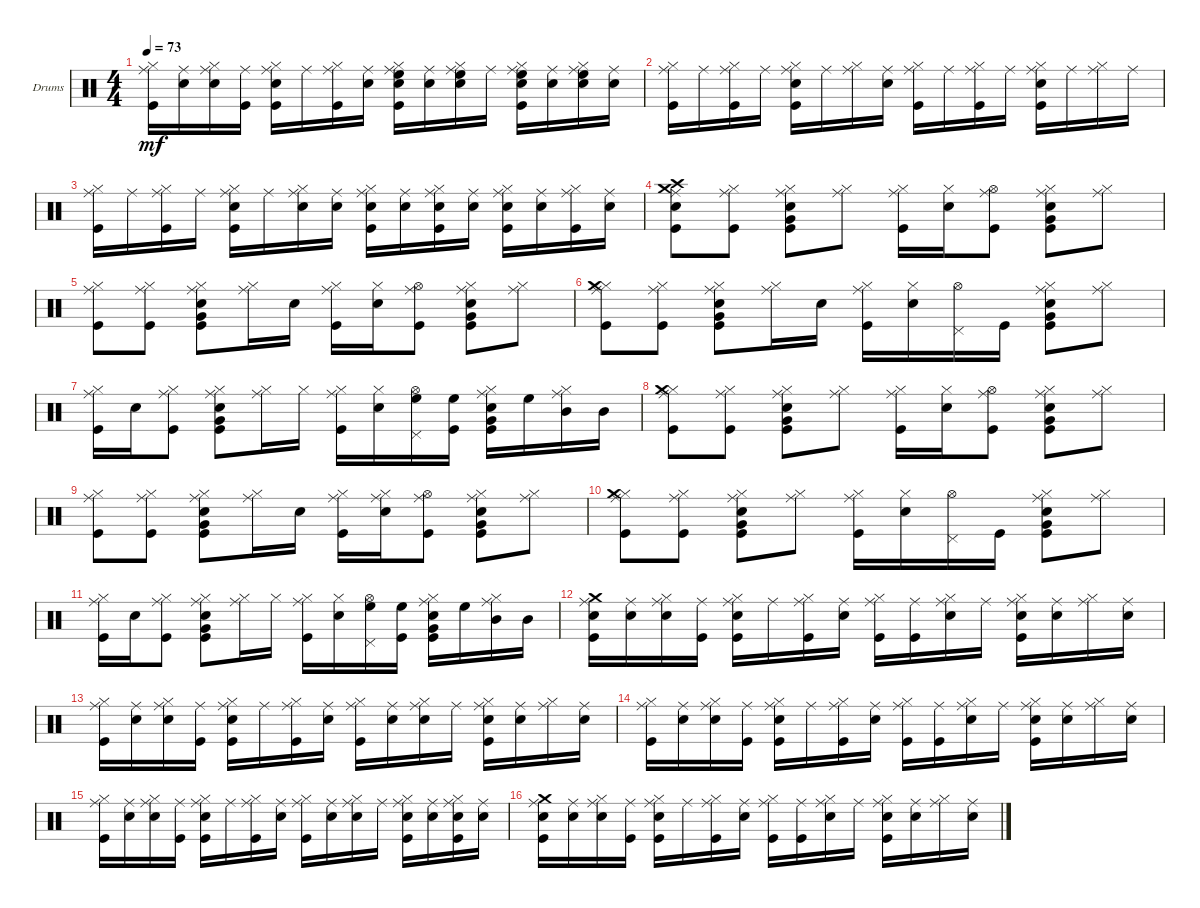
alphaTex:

\bracketExtendMode groupsimilarinstruments
\firstSystemTrackNameOrientation horizontal
\otherSystemsTrackNameOrientation horizontal
\track ("Drums" "Drums") {instrument percussion}
\staff {score}
\articulation defaults
\ts (4 4)
\tempo 73
\clef neutral
\ks c
("Kick (hit)" "Hi-Hat (closed)" "Ride (middle)").16{dy mf} ("Snare (hit) 2" "Ride (middle)").16 ("Hi-Hat (closed)" "Snare (hit) 2" "Ride (middle)").16 ("Kick (hit)" "Ride (middle)").16 ("Kick (hit)" "Snare (hit) 2" "Hi-Hat (closed)" "Ride (middle)").16 "Ride (middle)".16 ("Hi-Hat (closed)" "Kick (hit)" "Ride (middle)").16 ("Snare (hit) 2" "Ride (middle)").16 ("Snare (hit) 2" "Hi-Hat (closed)" "High Floor Tom (hit)" "Kick (hit)" "Ride (middle)").16 ("Snare (hit) 2" "Ride (middle)").16 ("Snare (hit) 2" "Hi-Hat (closed)" "High Floor Tom (hit)" "Ride (middle)").16 "Ride (middle)".16 ("Kick (hit)" "Snare (hit) 2" "Hi-Hat (closed)" "High Floor Tom (hit)" "Ride (middle)").16 ("Snare (hit) 2" "Ride (middle)").16 ("Snare (hit) 2" "Hi-Hat (closed)" "High Floor Tom (hit)" "Ride (middle)").16 ("Snare (hit) 2" "Ride (middle)").16 |
("Kick (hit)" "Hi-Hat (closed)" "Ride (middle)").16 "Ride (middle)".16 ("Hi-Hat (closed)" "Kick (hit)" "Ride (middle)").16 "Ride (middle)".16 ("Kick (hit)" "Snare (hit) 2" "Hi-Hat (closed)" "Ride (middle)").16 "Ride (middle)".16 ("Hi-Hat (closed)" "Ride (middle)").16 ("Snare (hit) 2" "Ride (middle)").16 ("Kick (hit)" "Hi-Hat (closed)" "Ride (middle)").16 "Ride (middle)".16 ("Hi-Hat (closed)" "Kick (hit)" "Ride (middle)").16 "Ride (middle)".16 ("Kick (hit)" "Snare (hit) 2" "Hi-Hat (closed)" "Ride (middle)").16 "Ride (middle)".16 ("Hi-Hat (closed)" "Ride (middle)").16 "Ride (middle)".16 |
("Kick (hit)" "Hi-Hat (closed)" "Ride (middle)").16 "Ride (middle)".16 ("Hi-Hat (closed)" "Kick (hit)" "Ride (middle)").16 "Ride (middle)".16 ("Kick (hit)" "Snare (hit) 2" "Hi-Hat (closed)" "Ride (middle)").16 "Ride (middle)".16 ("Snare (hit) 2" "Hi-Hat (closed)" "Ride (middle)").16 ("Snare (hit) 2" "Ride (middle)").16 ("Kick (hit)" "Snare (hit) 2" "Hi-Hat (closed)" "Ride (middle)").16 ("Snare (hit) 2" "Ride (middle)").16 ("Kick (hit)" "Snare (hit) 2" "Hi-Hat (closed)" "Ride (middle)").16 ("Snare (hit) 2" "Ride (middle)").16 ("Kick (hit)" "Snare (hit) 2" "Hi-Hat (closed)" "Ride (middle)").16 ("Snare (hit) 2" "Ride (middle)").16 ("Kick (hit)" "Hi-Hat (closed)" "Ride (middle)").16 ("Snare (hit) 2" "Ride (middle)").16 |
("Kick (hit)" "Snare (hit) 2" "Crash medium (hit)" "Crash high (hit)" "Ride (middle)").8 ("Hi-Hat (closed)" "Kick (hit)" "Ride (middle)").8 ("Kick (hit)" "Snare (hit) 2" "Hi-Hat (closed)" "Very Low Tom (hit)" "Ride (middle)").8 ("Hi-Hat (closed)" "Ride (middle)").8 ("Kick (hit)" "Hi-Hat (closed)" "Ride (middle)").16 ("Hi-Hat (closed)" "Snare (hit) 2").16 ("Hi-Hat (open)" "Kick (hit)" "Ride (middle)").8 ("Kick (hit)" "Snare (hit) 2" "Hi-Hat (closed)" "Very Low Tom (hit)" "Ride (middle)").8 ("Hi-Hat (closed)" "Ride (middle)").8 |
("Kick (hit)" "Hi-Hat (closed)" "Ride (middle)").8 ("Hi-Hat (closed)" "Kick (hit)" "Ride (middle)").8 ("Kick (hit)" "Snare (hit) 2" "Hi-Hat (closed)" "Very Low Tom (hit)" "Ride (middle)").8 ("Hi-Hat (closed)" "Ride (middle)").16 "Snare (hit) 2".16 ("Kick (hit)" "Hi-Hat (closed)" "Ride (middle)").16 ("Snare (hit) 2" "Hi-Hat (closed)").16 ("Hi-Hat (open)" "Kick (hit)" "Ride (middle)").8 ("Kick (hit)" "Snare (hit) 2" "Hi-Hat (closed)" "Very Low Tom (hit)" "Ride (middle)").8 ("Hi-Hat (closed)" "Ride (middle)").8 |
("Kick (hit)" "Hi-Hat (closed)" "Ride (middle)" "Crash medium (hit)").8 ("Hi-Hat (closed)" "Kick (hit)" "Ride (middle)").8 ("Kick (hit)" "Snare (hit) 2" "Hi-Hat (closed)" "Very Low Tom (hit)" "Ride (middle)").8 ("Hi-Hat (closed)" "Ride (middle)").16 "Snare (hit) 2".16 ("Kick (hit)" "Hi-Hat (closed)" "Ride (middle)").16 ("Hi-Hat (closed)" "Snare (hit) 2").16 ("Hi-Hat (open)" "Pedal Hi-Hat (hit)").16 "Kick (hit)".16 ("Kick (hit)" "Snare (hit) 2" "Hi-Hat (closed)" "Very Low Tom (hit)" "Ride (middle)").8 ("Hi-Hat (closed)" "Ride (middle)").8 |
("Kick (hit)" "Hi-Hat (closed)" "Ride (middle)").16 "Snare (hit) 2".16 ("Hi-Hat (closed)" "Kick (hit)" "Ride (middle)").8 ("Kick (hit)" "Snare (hit) 2" "Hi-Hat (closed)" "Very Low Tom (hit)" "Ride (middle)").8 ("Hi-Hat (closed)" "Ride (middle)").16 "Hi-Hat (closed)".16 ("Kick (hit)" "Hi-Hat (closed)" "Ride (middle)").16 ("Hi-Hat (closed)" "Snare (hit) 2").16 ("Hi-Hat (open)" "High Floor Tom (hit)" "Pedal Hi-Hat (hit)").16 ("High Floor Tom (hit)" "Kick (hit)").16 ("Kick (hit)" "Hi-Hat (closed)" "Very Low Tom (hit)" "Snare (hit) 2" "Ride (middle)").16 "High Floor Tom (hit)".16 ("Hi-Hat (closed)" "Mid Tom (hit)" "Ride (middle)").16 "Mid Tom (hit)".16 |
("Kick (hit)" "Hi-Hat (closed)" "Ride (middle)" "Crash medium (hit)").8 ("Hi-Hat (closed)" "Kick (hit)" "Ride (middle)").8 ("Kick (hit)" "Snare (hit) 2" "Hi-Hat (closed)" "Very Low Tom (hit)" "Ride (middle)").8 ("Hi-Hat (closed)" "Ride (middle)").8 ("Kick (hit)" "Hi-Hat (closed)" "Ride (middle)").16 ("Hi-Hat (closed)" "Snare (hit) 2").16 ("Hi-Hat (open)" "Kick (hit)" "Ride (middle)").8 ("Kick (hit)" "Snare (hit) 2" "Hi-Hat (closed)" "Very Low Tom (hit)" "Ride (middle)").8 ("Hi-Hat (closed)" "Ride (middle)").8 |
("Kick (hit)" "Hi-Hat (closed)" "Ride (middle)").8 ("Hi-Hat (closed)" "Kick (hit)" "Ride (middle)").8 ("Kick (hit)" "Snare (hit) 2" "Hi-Hat (closed)" "Very Low Tom (hit)" "Ride (middle)").8 ("Hi-Hat (closed)" "Ride (middle)").16 "Snare (hit) 2".16 ("Kick (hit)" "Hi-Hat (closed)" "Ride (middle)").16 ("Snare (hit) 2" "Hi-Hat (closed)" "Ride (middle)").16 ("Hi-Hat (open)" "Kick (hit)" "Ride (middle)").8 ("Kick (hit)" "Snare (hit) 2" "Hi-Hat (closed)" "Very Low Tom (hit)" "Ride (middle)").8 ("Hi-Hat (closed)" "Ride (middle)").8 |
("Kick (hit)" "Hi-Hat (closed)" "Ride (middle)" "Crash medium (hit)").8 ("Hi-Hat (closed)" "Kick (hit)" "Ride (middle)").8 ("Kick (hit)" "Snare (hit) 2" "Hi-Hat (closed)" "Very Low Tom (hit)" "Ride (middle)").8 ("Hi-Hat (closed)" "Ride (middle)").8 ("Kick (hit)" "Hi-Hat (closed)" "Ride (middle)").16 ("Hi-Hat (closed)" "Snare (hit) 2").16 ("Hi-Hat (open)" "Pedal Hi-Hat (hit)").16 "Kick (hit)".16 ("Kick (hit)" "Snare (hit) 2" "Hi-Hat (closed)" "Very Low Tom (hit)" "Ride (middle)").8 ("Hi-Hat (closed)" "Ride (middle)").8 |
("Kick (hit)" "Hi-Hat (closed)" "Ride (middle)").16 "Snare (hit) 2".16 ("Hi-Hat (closed)" "Kick (hit)" "Ride (middle)").8 ("Kick (hit)" "Snare (hit) 2" "Hi-Hat (closed)" "Very Low Tom (hit)" "Ride (middle)").8 ("Hi-Hat (closed)" "Ride (middle)").16 "Hi-Hat (closed)".16 ("Kick (hit)" "Hi-Hat (closed)" "Ride (middle)").16 ("Hi-Hat (closed)" "Snare (hit) 2").16 ("Hi-Hat (open)" "High Floor Tom (hit)" "Pedal Hi-Hat (hit)").16 ("High Floor Tom (hit)" "Kick (hit)").16 ("Kick (hit)" "Hi-Hat (closed)" "Very Low Tom (hit)" "Snare (hit) 2" "Ride (middle)").16 "High Floor Tom (hit)".16 ("Hi-Hat (closed)" "Mid Tom (hit)" "Ride (middle)").16 "Mid Tom (hit)".16 |
("Kick (hit)" "Snare (hit) 2" "Crash medium (hit)" "Ride (middle)").16 ("Snare (hit) 2" "Ride (middle)").16 ("Hi-Hat (closed)" "Snare (hit) 2" "Ride (middle)").16 ("Kick (hit)" "Ride (middle)").16 ("Kick (hit)" "Snare (hit) 2" "Hi-Hat (closed)" "Ride (middle)").16 "Ride (middle)".16 ("Hi-Hat (closed)" "Kick (hit)" "Ride (middle)").16 ("Snare (hit) 2" "Ride (middle)").16 ("Kick (hit)" "Hi-Hat (closed)" "Ride (middle)").16 ("Kick (hit)" "Ride (middle)").16 ("Hi-Hat (closed)" "Snare (hit) 2" "Ride (middle)").16 "Ride (middle)".16 ("Kick (hit)" "Snare (hit) 2" "Hi-Hat (closed)" "Ride (middle)").16 ("Snare (hit) 2" "Ride (middle)").16 ("Hi-Hat (closed)" "Ride (middle)").16 ("Snare (hit) 2" "Ride (middle)").16 |
("Kick (hit)" "Hi-Hat (closed)" "Ride (middle)").16 ("Snare (hit) 2" "Ride (middle)").16 ("Hi-Hat (closed)" "Snare (hit) 2" "Ride (middle)").16 ("Kick (hit)" "Ride (middle)").16 ("Kick (hit)" "Snare (hit) 2" "Hi-Hat (closed)" "Ride (middle)").16 "Ride (middle)".16 ("Hi-Hat (closed)" "Kick (hit)" "Ride (middle)").16 ("Snare (hit) 2" "Ride (middle)").16 ("Kick (hit)" "Hi-Hat (closed)" "Ride (middle)").16 ("Snare (hit) 2" "Ride (middle)").16 ("Hi-Hat (closed)" "Snare (hit) 2" "Ride (middle)").16 "Ride (middle)".16 ("Kick (hit)" "Snare (hit) 2" "Hi-Hat (closed)" "Ride (middle)").16 ("Snare (hit) 2" "Ride (middle)").16 ("Hi-Hat (closed)" "Ride (middle)").16 ("Snare (hit) 2" "Ride (middle)").16 |
("Kick (hit)" "Hi-Hat (closed)" "Ride (middle)").16 ("Snare (hit) 2" "Ride (middle)").16 ("Hi-Hat (closed)" "Snare (hit) 2" "Ride (middle)").16 ("Kick (hit)" "Ride (middle)").16 ("Kick (hit)" "Snare (hit) 2" "Hi-Hat (closed)" "Ride (middle)").16 "Ride (middle)".16 ("Hi-Hat (closed)" "Kick (hit)" "Ride (middle)").16 ("Snare (hit) 2" "Ride (middle)").16 ("Kick (hit)" "Hi-Hat (closed)" "Ride (middle)").16 ("Kick (hit)" "Ride (middle)").16 ("Hi-Hat (closed)" "Snare (hit) 2" "Ride (middle)").16 "Ride (middle)".16 ("Kick (hit)" "Snare (hit) 2" "Hi-Hat (closed)" "Ride (middle)").16 ("Snare (hit) 2" "Ride (middle)").16 ("Hi-Hat (closed)" "Ride (middle)").16 ("Snare (hit) 2" "Ride (middle)").16 |
("Kick (hit)" "Hi-Hat (closed)" "Ride (middle)").16 ("Snare (hit) 2" "Ride (middle)").16 ("Hi-Hat (closed)" "Snare (hit) 2" "Ride (middle)").16 ("Kick (hit)" "Ride (middle)").16 ("Kick (hit)" "Snare (hit) 2" "Hi-Hat (closed)" "Ride (middle)").16 "Ride (middle)".16 ("Hi-Hat (closed)" "Kick (hit)" "Ride (middle)").16 ("Snare (hit) 2" "Ride (middle)").16 ("Kick (hit)" "Hi-Hat (closed)" "Ride (middle)").16 ("Snare (hit) 2" "Ride (middle)").16 ("Hi-Hat (closed)" "Snare (hit) 2" "Ride (middle)").16 "Ride (middle)".16 ("Kick (hit)" "Snare (hit) 2" "Hi-Hat (closed)" "Ride (middle)").16 ("Snare (hit) 2" "Ride (middle)").16 ("Kick (hit)" "Snare (hit) 2" "Hi-Hat (closed)" "Ride (middle)").16 ("Snare (hit) 2" "Ride (middle)").16 |
("Kick (hit)" "Snare (hit) 2" "Crash medium (hit)" "Ride (middle)").16 ("Snare (hit) 2" "Ride (middle)").16 ("Hi-Hat (closed)" "Snare (hit) 2" "Ride (middle)").16 ("Kick (hit)" "Ride (middle)").16 ("Kick (hit)" "Snare (hit) 2" "Hi-Hat (closed)" "Ride (middle)").16 "Ride (middle)".16 ("Hi-Hat (closed)" "Kick (hit)" "Ride (middle)").16 ("Snare (hit) 2" "Ride (middle)").16 ("Kick (hit)" "Hi-Hat (closed)" "Ride (middle)").16 ("Kick (hit)" "Ride (middle)").16 ("Hi-Hat (closed)" "Snare (hit) 2" "Ride (middle)").16 "Ride (middle)".16 ("Kick (hit)" "Snare (hit) 2" "Hi-Hat (closed)" "Ride (middle)").16 ("Snare (hit) 2" "Ride (middle)").16 ("Hi-Hat (closed)" "Ride (middle)").16 ("Snare (hit) 2" "Ride (middle)").16
